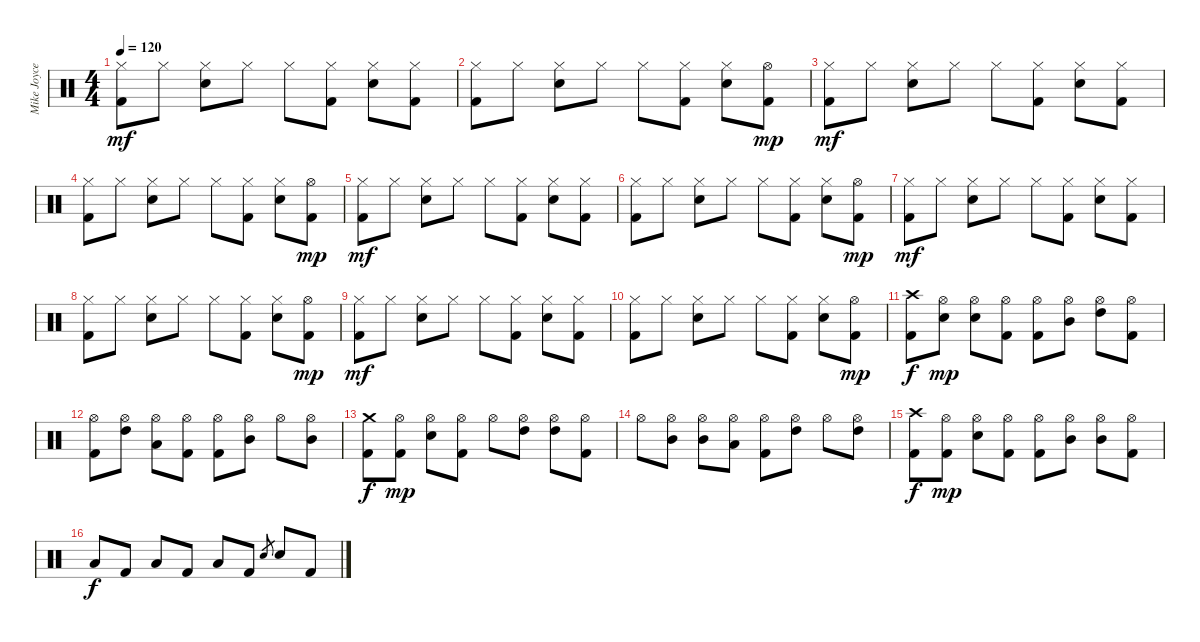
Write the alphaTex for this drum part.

\track ("Mike Joyce" "Mike Joyce") {instrument percussion}
\staff {score}
\articulation defaults
\ts (4 4)
\tempo 120
\clef neutral
\ks c
("Hi-Hat (closed)" "Kick (hit) 2").8{dy mf} "Hi-Hat (closed)".8 ("Hi-Hat (closed)" "Electric Snare (hit)").8 "Hi-Hat (closed)".8 "Hi-Hat (closed)".8 ("Hi-Hat (closed)" "Kick (hit) 2").8 ("Hi-Hat (closed)" "Electric Snare (hit)").8 ("Hi-Hat (closed)" "Kick (hit) 2").8 |
("Hi-Hat (closed)" "Kick (hit) 2").8 "Hi-Hat (closed)".8 ("Hi-Hat (closed)" "Electric Snare (hit)").8 "Hi-Hat (closed)".8 "Hi-Hat (closed)".8 ("Hi-Hat (closed)" "Kick (hit) 2").8 ("Hi-Hat (closed)" "Electric Snare (hit)").8 ("Hi-Hat (open)" "Kick (hit) 2").8{dy mp} |
("Hi-Hat (closed)" "Kick (hit) 2").8{dy mf} "Hi-Hat (closed)".8 ("Hi-Hat (closed)" "Electric Snare (hit)").8 "Hi-Hat (closed)".8 "Hi-Hat (closed)".8 ("Hi-Hat (closed)" "Kick (hit) 2").8 ("Hi-Hat (closed)" "Electric Snare (hit)").8 ("Hi-Hat (closed)" "Kick (hit) 2").8 |
("Hi-Hat (closed)" "Kick (hit) 2").8 "Hi-Hat (closed)".8 ("Hi-Hat (closed)" "Electric Snare (hit)").8 "Hi-Hat (closed)".8 "Hi-Hat (closed)".8 ("Hi-Hat (closed)" "Kick (hit) 2").8 ("Hi-Hat (closed)" "Electric Snare (hit)").8 ("Hi-Hat (open)" "Kick (hit) 2").8{dy mp} |
("Hi-Hat (closed)" "Kick (hit) 2").8{dy mf} "Hi-Hat (closed)".8 ("Hi-Hat (closed)" "Electric Snare (hit)").8 "Hi-Hat (closed)".8 "Hi-Hat (closed)".8 ("Hi-Hat (closed)" "Kick (hit) 2").8 ("Hi-Hat (closed)" "Electric Snare (hit)").8 ("Hi-Hat (closed)" "Kick (hit) 2").8 |
("Hi-Hat (closed)" "Kick (hit) 2").8 "Hi-Hat (closed)".8 ("Hi-Hat (closed)" "Electric Snare (hit)").8 "Hi-Hat (closed)".8 "Hi-Hat (closed)".8 ("Hi-Hat (closed)" "Kick (hit) 2").8 ("Hi-Hat (closed)" "Electric Snare (hit)").8 ("Hi-Hat (open)" "Kick (hit) 2").8{dy mp} |
("Hi-Hat (closed)" "Kick (hit) 2").8{dy mf} "Hi-Hat (closed)".8 ("Hi-Hat (closed)" "Electric Snare (hit)").8 "Hi-Hat (closed)".8 "Hi-Hat (closed)".8 ("Hi-Hat (closed)" "Kick (hit) 2").8 ("Hi-Hat (closed)" "Electric Snare (hit)").8 ("Hi-Hat (closed)" "Kick (hit) 2").8 |
("Hi-Hat (closed)" "Kick (hit) 2").8 "Hi-Hat (closed)".8 ("Hi-Hat (closed)" "Electric Snare (hit)").8 "Hi-Hat (closed)".8 "Hi-Hat (closed)".8 ("Hi-Hat (closed)" "Kick (hit) 2").8 ("Hi-Hat (closed)" "Electric Snare (hit)").8 ("Hi-Hat (open)" "Kick (hit) 2").8{dy mp} |
("Hi-Hat (closed)" "Kick (hit) 2").8{dy mf} "Hi-Hat (closed)".8 ("Hi-Hat (closed)" "Electric Snare (hit)").8 "Hi-Hat (closed)".8 "Hi-Hat (closed)".8 ("Hi-Hat (closed)" "Kick (hit) 2").8 ("Hi-Hat (closed)" "Electric Snare (hit)").8 ("Hi-Hat (closed)" "Kick (hit) 2").8 |
("Hi-Hat (closed)" "Kick (hit) 2").8 "Hi-Hat (closed)".8 ("Hi-Hat (closed)" "Electric Snare (hit)").8 "Hi-Hat (closed)".8 "Hi-Hat (closed)".8 ("Hi-Hat (closed)" "Kick (hit) 2").8 ("Hi-Hat (closed)" "Electric Snare (hit)").8 ("Hi-Hat (open)" "Kick (hit) 2").8{dy mp} |
("Crash high (hit)" "Kick (hit) 2").8{dy f} ("Hi-Hat (open)" "Electric Snare (hit)").8{dy mp} ("Hi-Hat (open)" "Electric Snare (hit)").8 ("Hi-Hat (open)" "Kick (hit) 2").8 ("Hi-Hat (open)" "Kick (hit) 2").8 ("Hi-Hat (open)" "Mid Tom (hit)").8 ("Hi-Hat (open)" "High Tom (hit)").8 ("Hi-Hat (open)" "Kick (hit) 2").8 |
("Hi-Hat (open)" "Kick (hit) 2").8 ("Hi-Hat (open)" "High Tom (hit)").8 ("Hi-Hat (open)" "Low Floor Tom (hit)").8 ("Hi-Hat (open)" "Kick (hit) 2").8 ("Hi-Hat (open)" "Kick (hit) 2").8 ("Hi-Hat (open)" "Mid Tom (hit)").8 "Hi-Hat (open)".8 ("Hi-Hat (open)" "Mid Tom (hit)").8 |
("Crash medium (hit)" "Kick (hit) 2").8{dy f} ("Hi-Hat (open)" "Kick (hit) 2").8{dy mp} ("Hi-Hat (open)" "Electric Snare (hit)").8 ("Hi-Hat (open)" "Kick (hit) 2").8 "Hi-Hat (open)".8 ("Hi-Hat (open)" "High Tom (hit)").8 ("Hi-Hat (open)" "High Tom (hit)").8 ("Hi-Hat (open)" "Kick (hit) 2").8 |
"Hi-Hat (open)".8 ("Hi-Hat (open)" "Mid Tom (hit)").8 ("Hi-Hat (open)" "Mid Tom (hit)").8 ("Hi-Hat (open)" "Low Floor Tom (hit)").8 ("Hi-Hat (open)" "Kick (hit) 2").8 ("Hi-Hat (open)" "High Tom (hit)").8 "Hi-Hat (open)".8 ("Hi-Hat (open)" "High Tom (hit)").8 |
("Crash high (hit)" "Kick (hit) 2").8{dy f} ("Hi-Hat (open)" "Kick (hit) 2").8{dy mp} ("Hi-Hat (open)" "Electric Snare (hit)").8 ("Hi-Hat (open)" "Kick (hit) 2").8 ("Hi-Hat (open)" "Kick (hit) 2").8 ("Hi-Hat (open)" "Mid Tom (hit)").8 ("Hi-Hat (open)" "Mid Tom (hit)").8 ("Hi-Hat (open)" "Kick (hit) 2").8 |
"Low Floor Tom (hit)".8{dy f} "Kick (hit) 2".8 "Low Floor Tom (hit)".8 "Kick (hit) 2".8 "Low Floor Tom (hit)".8 "Kick (hit) 2".8 "Electric Snare (hit)".8{gr} "Electric Snare (hit)".8 "Kick (hit) 2".8
